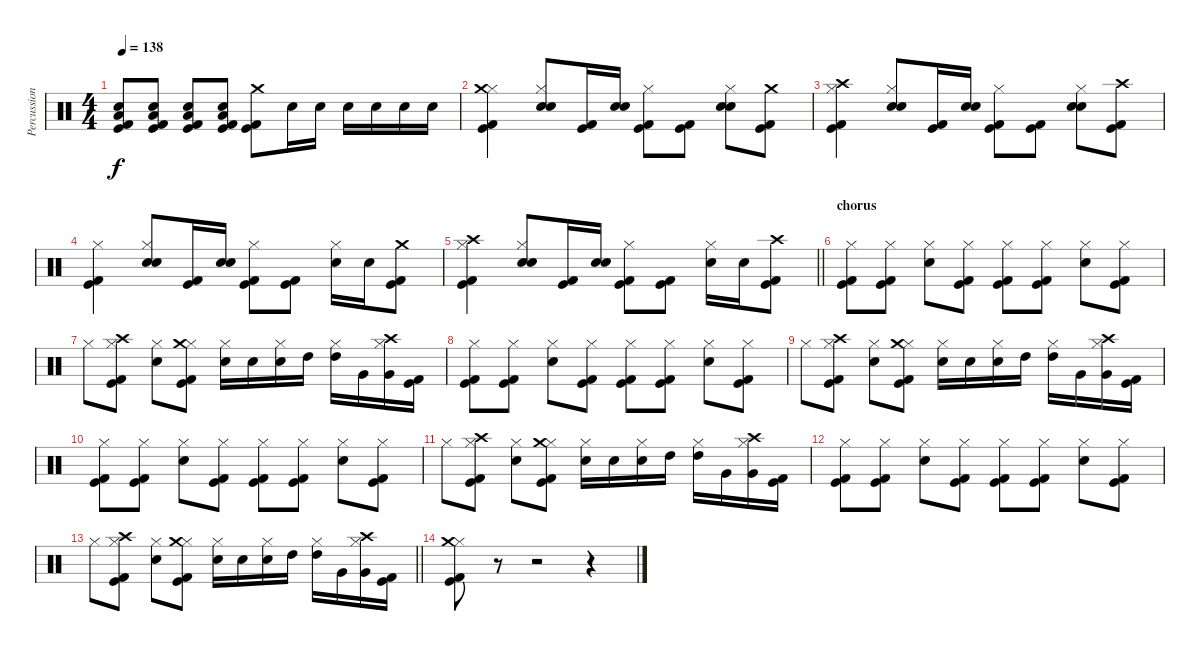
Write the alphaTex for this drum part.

\track ("Percussion" "Percussion") {instrument percussion}
\staff {score}
\articulation defaults
\ts (4 4)
\tempo 138
\clef neutral
\ks c
("Kick (hit) 2" "Low Floor Tom (hit)" "Snare (hit) 2" "Kick (hit)").8{dy f} ("Kick (hit) 2" "Low Floor Tom (hit)" "Snare (hit) 2" "Kick (hit)").8 ("Kick (hit) 2" "Low Floor Tom (hit)" "Snare (hit) 2" "Kick (hit)").8 ("Kick (hit) 2" "Low Floor Tom (hit)" "Snare (hit) 2" "Kick (hit)").8 ("Crash medium (hit)" "Kick (hit) 2" "Kick (hit)").8 "Snare (hit) 2".16 "Snare (hit) 2".16 "Snare (hit) 2".16 "Snare (hit) 2".16 "Snare (hit) 2".16 "Snare (hit) 2".16 |
("Hi-Hat (closed)" "Crash medium (hit)" "Kick (hit) 2" "Kick (hit)").4 ("Hi-Hat (closed)" "Electric Snare (hit)" "Snare (hit) 2").8 ("Kick (hit) 2" "Kick (hit)").16 ("Electric Snare (hit)" "Snare (hit) 2").16 ("Hi-Hat (closed)" "Kick (hit) 2" "Kick (hit)").8 ("Kick (hit) 2" "Kick (hit)").8 ("Hi-Hat (closed)" "Snare (hit) 2" "Electric Snare (hit)").8 ("Crash medium (hit)" "Kick (hit) 2" "Kick (hit)").8 |
("Hi-Hat (closed)" "Crash high (hit)" "Kick (hit) 2" "Kick (hit)").4 ("Hi-Hat (closed)" "Electric Snare (hit)" "Snare (hit) 2").8 ("Kick (hit) 2" "Kick (hit)").16 ("Electric Snare (hit)" "Snare (hit) 2").16 ("Hi-Hat (closed)" "Kick (hit) 2" "Kick (hit)").8 ("Kick (hit) 2" "Kick (hit)").8 ("Hi-Hat (closed)" "Snare (hit) 2" "Electric Snare (hit)").8 ("Crash high (hit)" "Kick (hit) 2" "Kick (hit)").8 |
("Hi-Hat (closed)" "Kick (hit) 2" "Kick (hit)").4 ("Hi-Hat (closed)" "Electric Snare (hit)" "Snare (hit) 2").8 ("Kick (hit) 2" "Kick (hit)").16 ("Electric Snare (hit)" "Snare (hit) 2").16 ("Hi-Hat (closed)" "Kick (hit) 2" "Kick (hit)").8 ("Kick (hit) 2" "Kick (hit)").8 ("Hi-Hat (closed)" "Snare (hit) 2").16 "Snare (hit) 2".16 ("Crash medium (hit)" "Kick (hit)" "Kick (hit) 2").8 |
\barLineRight lightlight
("Hi-Hat (closed)" "Crash high (hit)" "Kick (hit) 2" "Kick (hit)").4 ("Hi-Hat (closed)" "Electric Snare (hit)" "Snare (hit) 2").8 ("Kick (hit) 2" "Kick (hit)").16 ("Electric Snare (hit)" "Snare (hit) 2").16 ("Hi-Hat (closed)" "Kick (hit) 2" "Kick (hit)").8 ("Kick (hit) 2" "Kick (hit)").8 ("Hi-Hat (closed)" "Snare (hit) 2").16 "Snare (hit) 2".16 ("Crash high (hit)" "Kick (hit)" "Kick (hit) 2").8 |
\section ("" "chorus")
("Hi-Hat (closed)" "Kick (hit) 2" "Kick (hit)").8 ("Hi-Hat (closed)" "Kick (hit) 2" "Kick (hit)").8 ("Hi-Hat (closed)" "Snare (hit) 2").8 ("Hi-Hat (closed)" "Kick (hit) 2" "Kick (hit)").8 ("Hi-Hat (closed)" "Kick (hit) 2" "Kick (hit)").8 ("Hi-Hat (closed)" "Kick (hit) 2" "Kick (hit)").8 ("Hi-Hat (closed)" "Snare (hit) 2").8 ("Hi-Hat (closed)" "Kick (hit) 2" "Kick (hit)").8 |
"Hi-Hat (closed)".8 ("Hi-Hat (closed)" "Crash high (hit)" "Kick (hit) 2" "Kick (hit)").8 ("Hi-Hat (closed)" "Snare (hit) 2").8 ("Hi-Hat (closed)" "Crash medium (hit)" "Kick (hit) 2" "Kick (hit)").8 ("Hi-Hat (closed)" "Snare (hit) 2").16 "Snare (hit) 2".16 ("Hi-Hat (closed)" "Snare (hit) 2").16 "High Tom (hit)".16 ("Hi-Hat (closed)" "High Tom (hit)").16 "Very Low Tom (hit)".16 ("Hi-Hat (closed)" "Crash high (hit)" "Very Low Tom (hit)").16 ("Kick (hit)" "Kick (hit) 2").16 |
("Hi-Hat (closed)" "Kick (hit) 2" "Kick (hit)").8 ("Hi-Hat (closed)" "Kick (hit) 2" "Kick (hit)").8 ("Hi-Hat (closed)" "Snare (hit) 2").8 ("Hi-Hat (closed)" "Kick (hit) 2" "Kick (hit)").8 ("Hi-Hat (closed)" "Kick (hit) 2" "Kick (hit)").8 ("Hi-Hat (closed)" "Kick (hit) 2" "Kick (hit)").8 ("Hi-Hat (closed)" "Snare (hit) 2").8 ("Hi-Hat (closed)" "Kick (hit) 2" "Kick (hit)").8 |
"Hi-Hat (closed)".8 ("Hi-Hat (closed)" "Crash high (hit)" "Kick (hit) 2" "Kick (hit)").8 ("Hi-Hat (closed)" "Snare (hit) 2").8 ("Hi-Hat (closed)" "Crash medium (hit)" "Kick (hit) 2" "Kick (hit)").8 ("Hi-Hat (closed)" "Snare (hit) 2").16 "Snare (hit) 2".16 ("Hi-Hat (closed)" "Snare (hit) 2").16 "High Tom (hit)".16 ("Hi-Hat (closed)" "High Tom (hit)").16 "Very Low Tom (hit)".16 ("Hi-Hat (closed)" "Crash high (hit)" "Very Low Tom (hit)").16 ("Kick (hit)" "Kick (hit) 2").16 |
("Hi-Hat (closed)" "Kick (hit) 2" "Kick (hit)").8 ("Hi-Hat (closed)" "Kick (hit) 2" "Kick (hit)").8 ("Hi-Hat (closed)" "Snare (hit) 2").8 ("Hi-Hat (closed)" "Kick (hit) 2" "Kick (hit)").8 ("Hi-Hat (closed)" "Kick (hit) 2" "Kick (hit)").8 ("Hi-Hat (closed)" "Kick (hit) 2" "Kick (hit)").8 ("Hi-Hat (closed)" "Snare (hit) 2").8 ("Hi-Hat (closed)" "Kick (hit) 2" "Kick (hit)").8 |
"Hi-Hat (closed)".8 ("Hi-Hat (closed)" "Crash high (hit)" "Kick (hit) 2" "Kick (hit)").8 ("Hi-Hat (closed)" "Snare (hit) 2").8 ("Hi-Hat (closed)" "Crash medium (hit)" "Kick (hit) 2" "Kick (hit)").8 ("Hi-Hat (closed)" "Snare (hit) 2").16 "Snare (hit) 2".16 ("Hi-Hat (closed)" "Snare (hit) 2").16 "High Tom (hit)".16 ("Hi-Hat (closed)" "High Tom (hit)").16 "Very Low Tom (hit)".16 ("Hi-Hat (closed)" "Crash high (hit)" "Very Low Tom (hit)").16 ("Kick (hit)" "Kick (hit) 2").16 |
("Hi-Hat (closed)" "Kick (hit) 2" "Kick (hit)").8 ("Hi-Hat (closed)" "Kick (hit) 2" "Kick (hit)").8 ("Hi-Hat (closed)" "Snare (hit) 2").8 ("Hi-Hat (closed)" "Kick (hit) 2" "Kick (hit)").8 ("Hi-Hat (closed)" "Kick (hit) 2" "Kick (hit)").8 ("Hi-Hat (closed)" "Kick (hit) 2" "Kick (hit)").8 ("Hi-Hat (closed)" "Snare (hit) 2").8 ("Hi-Hat (closed)" "Kick (hit) 2" "Kick (hit)").8 |
\barLineRight lightlight "Hi-Hat (closed)".8
("Hi-Hat (closed)" "Crash high (hit)" "Kick (hit) 2" "Kick (hit)").8 ("Hi-Hat (closed)" "Snare (hit) 2").8 ("Hi-Hat (closed)" "Crash medium (hit)" "Kick (hit) 2" "Kick (hit)").8 ("Hi-Hat (closed)" "Snare (hit) 2").16 "Snare (hit) 2".16 ("Hi-Hat (closed)" "Snare (hit) 2").16 "High Tom (hit)".16 ("Hi-Hat (closed)" "High Tom (hit)").16 "Very Low Tom (hit)".16 ("Hi-Hat (closed)" "Crash high (hit)" "Very Low Tom (hit)").16 ("Kick (hit)" "Kick (hit) 2").16 |
("Hi-Hat (closed)" "Crash medium (hit)" "Kick (hit) 2" "Kick (hit)").8 r.8 r.2 r.4
